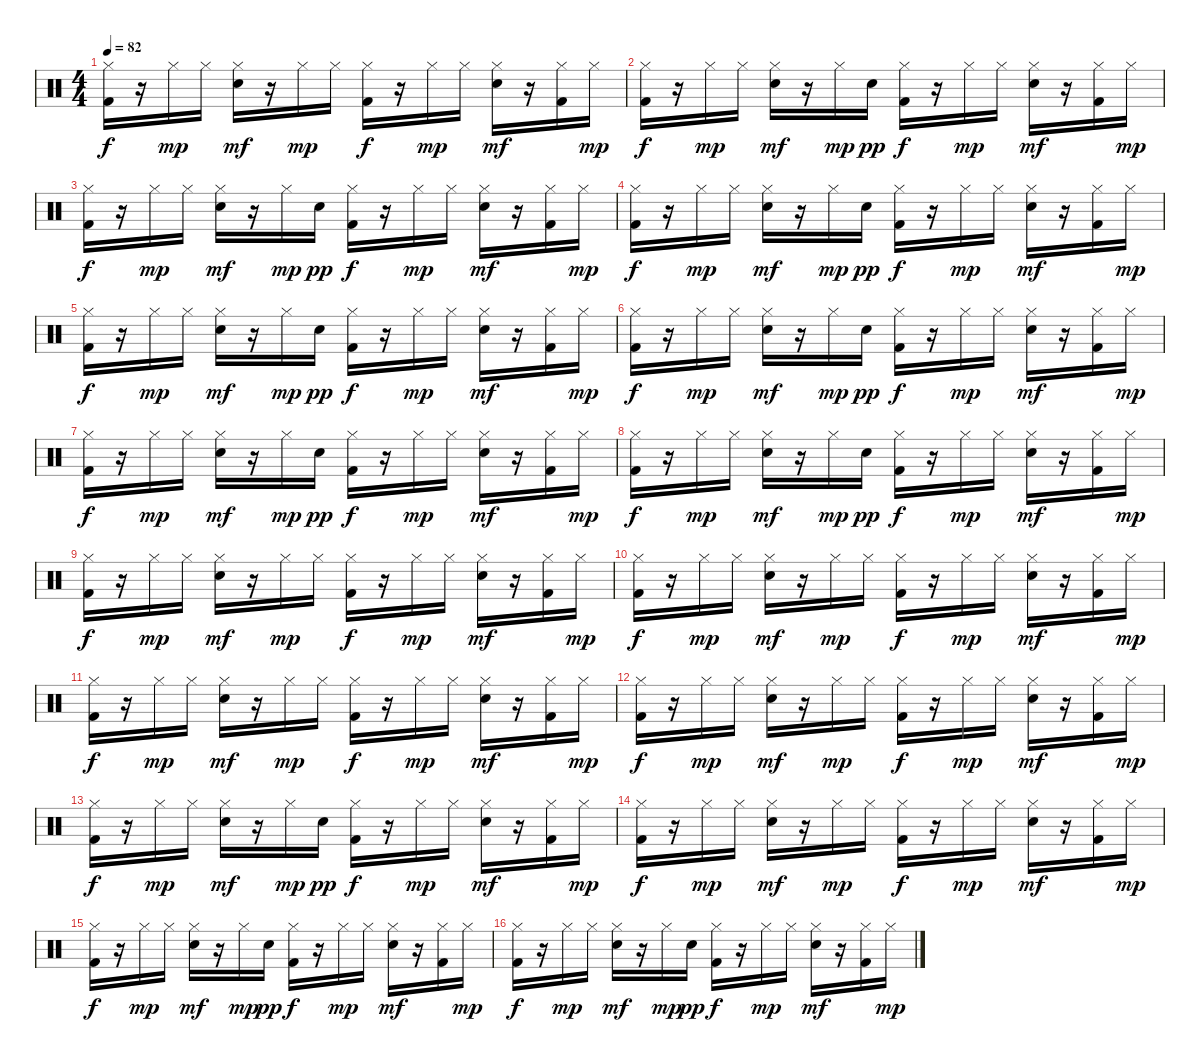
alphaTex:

\track "" {instrument percussion}
\staff {score}
\articulation defaults
\ts (4 4)
\tempo 82
\clef neutral
\ks c
("Hi-Hat (closed)" "Kick (hit) 2").16{dy f} r.16 "Hi-Hat (closed)".16{dy mp} "Hi-Hat (closed)".16 ("Hi-Hat (closed)" "Snare (hit) 2").16{dy mf} r.16 "Hi-Hat (closed)".16{dy mp} "Hi-Hat (closed)".16 ("Hi-Hat (closed)" "Kick (hit) 2").16{dy f} r.16 "Hi-Hat (closed)".16{dy mp} "Hi-Hat (closed)".16 ("Hi-Hat (closed)" "Snare (hit) 2").16{dy mf} r.16 ("Hi-Hat (closed)" "Kick (hit) 2").16 "Hi-Hat (closed)".16{dy mp} |
("Hi-Hat (closed)" "Kick (hit) 2").16{dy f} r.16 "Hi-Hat (closed)".16{dy mp} "Hi-Hat (closed)".16 ("Hi-Hat (closed)" "Snare (hit) 2").16{dy mf} r.16 "Hi-Hat (closed)".16{dy mp} "Snare (hit) 2".16{dy pp} ("Hi-Hat (closed)" "Kick (hit) 2").16{dy f} r.16 "Hi-Hat (closed)".16{dy mp} "Hi-Hat (closed)".16 ("Hi-Hat (closed)" "Snare (hit) 2").16{dy mf} r.16 ("Hi-Hat (closed)" "Kick (hit) 2").16 "Hi-Hat (closed)".16{dy mp} |
("Hi-Hat (closed)" "Kick (hit) 2").16{dy f} r.16 "Hi-Hat (closed)".16{dy mp} "Hi-Hat (closed)".16 ("Hi-Hat (closed)" "Snare (hit) 2").16{dy mf} r.16 "Hi-Hat (closed)".16{dy mp} "Snare (hit) 2".16{dy pp} ("Hi-Hat (closed)" "Kick (hit) 2").16{dy f} r.16 "Hi-Hat (closed)".16{dy mp} "Hi-Hat (closed)".16 ("Hi-Hat (closed)" "Snare (hit) 2").16{dy mf} r.16 ("Hi-Hat (closed)" "Kick (hit) 2").16 "Hi-Hat (closed)".16{dy mp} |
("Hi-Hat (closed)" "Kick (hit) 2").16{dy f} r.16 "Hi-Hat (closed)".16{dy mp} "Hi-Hat (closed)".16 ("Hi-Hat (closed)" "Snare (hit) 2").16{dy mf} r.16 "Hi-Hat (closed)".16{dy mp} "Snare (hit) 2".16{dy pp} ("Hi-Hat (closed)" "Kick (hit) 2").16{dy f} r.16 "Hi-Hat (closed)".16{dy mp} "Hi-Hat (closed)".16 ("Hi-Hat (closed)" "Snare (hit) 2").16{dy mf} r.16 ("Hi-Hat (closed)" "Kick (hit) 2").16 "Hi-Hat (closed)".16{dy mp} |
("Hi-Hat (closed)" "Kick (hit) 2").16{dy f} r.16 "Hi-Hat (closed)".16{dy mp} "Hi-Hat (closed)".16 ("Hi-Hat (closed)" "Snare (hit) 2").16{dy mf} r.16 "Hi-Hat (closed)".16{dy mp} "Snare (hit) 2".16{dy pp} ("Hi-Hat (closed)" "Kick (hit) 2").16{dy f} r.16 "Hi-Hat (closed)".16{dy mp} "Hi-Hat (closed)".16 ("Hi-Hat (closed)" "Snare (hit) 2").16{dy mf} r.16 ("Hi-Hat (closed)" "Kick (hit) 2").16 "Hi-Hat (closed)".16{dy mp} |
("Hi-Hat (closed)" "Kick (hit) 2").16{dy f} r.16 "Hi-Hat (closed)".16{dy mp} "Hi-Hat (closed)".16 ("Hi-Hat (closed)" "Snare (hit) 2").16{dy mf} r.16 "Hi-Hat (closed)".16{dy mp} "Snare (hit) 2".16{dy pp} ("Hi-Hat (closed)" "Kick (hit) 2").16{dy f} r.16 "Hi-Hat (closed)".16{dy mp} "Hi-Hat (closed)".16 ("Hi-Hat (closed)" "Snare (hit) 2").16{dy mf} r.16 ("Hi-Hat (closed)" "Kick (hit) 2").16 "Hi-Hat (closed)".16{dy mp} |
("Hi-Hat (closed)" "Kick (hit) 2").16{dy f} r.16 "Hi-Hat (closed)".16{dy mp} "Hi-Hat (closed)".16 ("Hi-Hat (closed)" "Snare (hit) 2").16{dy mf} r.16 "Hi-Hat (closed)".16{dy mp} "Snare (hit) 2".16{dy pp} ("Hi-Hat (closed)" "Kick (hit) 2").16{dy f} r.16 "Hi-Hat (closed)".16{dy mp} "Hi-Hat (closed)".16 ("Hi-Hat (closed)" "Snare (hit) 2").16{dy mf} r.16 ("Hi-Hat (closed)" "Kick (hit) 2").16 "Hi-Hat (closed)".16{dy mp} |
("Hi-Hat (closed)" "Kick (hit) 2").16{dy f} r.16 "Hi-Hat (closed)".16{dy mp} "Hi-Hat (closed)".16 ("Hi-Hat (closed)" "Snare (hit) 2").16{dy mf} r.16 "Hi-Hat (closed)".16{dy mp} "Snare (hit) 2".16{dy pp} ("Hi-Hat (closed)" "Kick (hit) 2").16{dy f} r.16 "Hi-Hat (closed)".16{dy mp} "Hi-Hat (closed)".16 ("Hi-Hat (closed)" "Snare (hit) 2").16{dy mf} r.16 ("Hi-Hat (closed)" "Kick (hit) 2").16 "Hi-Hat (closed)".16{dy mp} |
("Hi-Hat (closed)" "Kick (hit) 2").16{dy f} r.16 "Hi-Hat (closed)".16{dy mp} "Hi-Hat (closed)".16 ("Hi-Hat (closed)" "Snare (hit) 2").16{dy mf} r.16 "Hi-Hat (closed)".16{dy mp} "Hi-Hat (closed)".16 ("Hi-Hat (closed)" "Kick (hit) 2").16{dy f} r.16 "Hi-Hat (closed)".16{dy mp} "Hi-Hat (closed)".16 ("Hi-Hat (closed)" "Snare (hit) 2").16{dy mf} r.16 ("Hi-Hat (closed)" "Kick (hit) 2").16 "Hi-Hat (closed)".16{dy mp} |
("Hi-Hat (closed)" "Kick (hit) 2").16{dy f} r.16 "Hi-Hat (closed)".16{dy mp} "Hi-Hat (closed)".16 ("Hi-Hat (closed)" "Snare (hit) 2").16{dy mf} r.16 "Hi-Hat (closed)".16{dy mp} "Hi-Hat (closed)".16 ("Hi-Hat (closed)" "Kick (hit) 2").16{dy f} r.16 "Hi-Hat (closed)".16{dy mp} "Hi-Hat (closed)".16 ("Hi-Hat (closed)" "Snare (hit) 2").16{dy mf} r.16 ("Hi-Hat (closed)" "Kick (hit) 2").16 "Hi-Hat (closed)".16{dy mp} |
("Hi-Hat (closed)" "Kick (hit) 2").16{dy f} r.16 "Hi-Hat (closed)".16{dy mp} "Hi-Hat (closed)".16 ("Hi-Hat (closed)" "Snare (hit) 2").16{dy mf} r.16 "Hi-Hat (closed)".16{dy mp} "Hi-Hat (closed)".16 ("Hi-Hat (closed)" "Kick (hit) 2").16{dy f} r.16 "Hi-Hat (closed)".16{dy mp} "Hi-Hat (closed)".16 ("Hi-Hat (closed)" "Snare (hit) 2").16{dy mf} r.16 ("Hi-Hat (closed)" "Kick (hit) 2").16 "Hi-Hat (closed)".16{dy mp} |
("Hi-Hat (closed)" "Kick (hit) 2").16{dy f} r.16 "Hi-Hat (closed)".16{dy mp} "Hi-Hat (closed)".16 ("Hi-Hat (closed)" "Snare (hit) 2").16{dy mf} r.16 "Hi-Hat (closed)".16{dy mp} "Hi-Hat (closed)".16 ("Hi-Hat (closed)" "Kick (hit) 2").16{dy f} r.16 "Hi-Hat (closed)".16{dy mp} "Hi-Hat (closed)".16 ("Hi-Hat (closed)" "Snare (hit) 2").16{dy mf} r.16 ("Hi-Hat (closed)" "Kick (hit) 2").16 "Hi-Hat (closed)".16{dy mp} |
("Hi-Hat (closed)" "Kick (hit) 2").16{dy f} r.16 "Hi-Hat (closed)".16{dy mp} "Hi-Hat (closed)".16 ("Hi-Hat (closed)" "Snare (hit) 2").16{dy mf} r.16 "Hi-Hat (closed)".16{dy mp} "Snare (hit) 2".16{dy pp} ("Hi-Hat (closed)" "Kick (hit) 2").16{dy f} r.16 "Hi-Hat (closed)".16{dy mp} "Hi-Hat (closed)".16 ("Hi-Hat (closed)" "Snare (hit) 2").16{dy mf} r.16 ("Hi-Hat (closed)" "Kick (hit) 2").16 "Hi-Hat (closed)".16{dy mp} |
("Hi-Hat (closed)" "Kick (hit) 2").16{dy f} r.16 "Hi-Hat (closed)".16{dy mp} "Hi-Hat (closed)".16 ("Hi-Hat (closed)" "Snare (hit) 2").16{dy mf} r.16 "Hi-Hat (closed)".16{dy mp} "Hi-Hat (closed)".16 ("Hi-Hat (closed)" "Kick (hit) 2").16{dy f} r.16 "Hi-Hat (closed)".16{dy mp} "Hi-Hat (closed)".16 ("Hi-Hat (closed)" "Snare (hit) 2").16{dy mf} r.16 ("Hi-Hat (closed)" "Kick (hit) 2").16 "Hi-Hat (closed)".16{dy mp} |
("Hi-Hat (closed)" "Kick (hit) 2").16{dy f} r.16 "Hi-Hat (closed)".16{dy mp} "Hi-Hat (closed)".16 ("Hi-Hat (closed)" "Snare (hit) 2").16{dy mf} r.16 "Hi-Hat (closed)".16{dy mp} "Snare (hit) 2".16{dy pp} ("Hi-Hat (closed)" "Kick (hit) 2").16{dy f} r.16 "Hi-Hat (closed)".16{dy mp} "Hi-Hat (closed)".16 ("Hi-Hat (closed)" "Snare (hit) 2").16{dy mf} r.16 ("Hi-Hat (closed)" "Kick (hit) 2").16 "Hi-Hat (closed)".16{dy mp} |
("Hi-Hat (closed)" "Kick (hit) 2").16{dy f} r.16 "Hi-Hat (closed)".16{dy mp} "Hi-Hat (closed)".16 ("Hi-Hat (closed)" "Snare (hit) 2").16{dy mf} r.16 "Hi-Hat (closed)".16{dy mp} "Snare (hit) 2".16{dy pp} ("Hi-Hat (closed)" "Kick (hit) 2").16{dy f} r.16 "Hi-Hat (closed)".16{dy mp} "Hi-Hat (closed)".16 ("Hi-Hat (closed)" "Snare (hit) 2").16{dy mf} r.16 ("Hi-Hat (closed)" "Kick (hit) 2").16 "Hi-Hat (closed)".16{dy mp}
